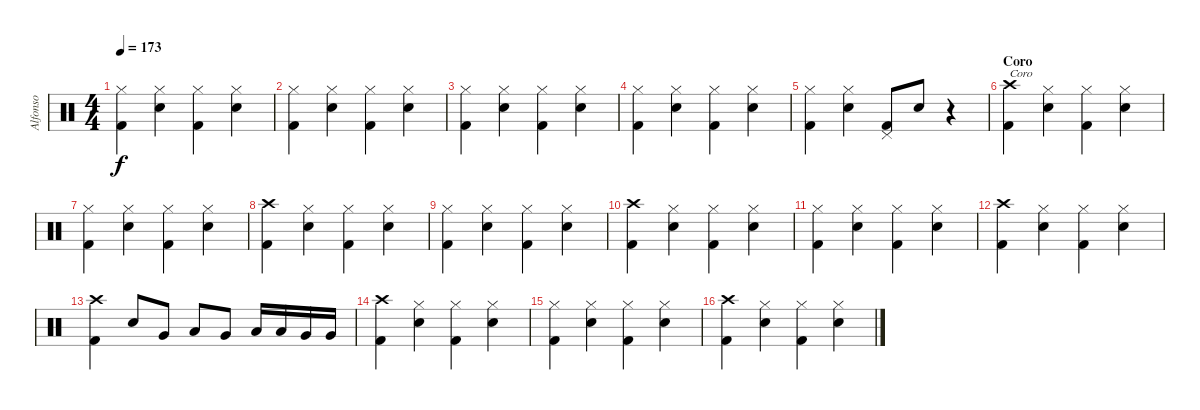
\track ("Alfonso" "Alfonso") {instrument percussion}
\staff {score}
\articulation defaults
\ts (4 4)
\tempo 173
\clef neutral
\ks c
("Kick (hit) 2" "Hi-Hat (closed)").4{dy f} ("Electric Snare (hit)" "Hi-Hat (closed)").4 ("Kick (hit) 2" "Hi-Hat (closed)").4 ("Electric Snare (hit)" "Hi-Hat (closed)").4 |
("Kick (hit) 2" "Hi-Hat (closed)").4 ("Electric Snare (hit)" "Hi-Hat (closed)").4 ("Kick (hit) 2" "Hi-Hat (closed)").4 ("Electric Snare (hit)" "Hi-Hat (closed)").4 |
("Kick (hit) 2" "Hi-Hat (closed)").4 ("Electric Snare (hit)" "Hi-Hat (closed)").4 ("Kick (hit) 2" "Hi-Hat (closed)").4 ("Electric Snare (hit)" "Hi-Hat (closed)").4 |
("Kick (hit) 2" "Hi-Hat (closed)").4 ("Electric Snare (hit)" "Hi-Hat (closed)").4 ("Kick (hit) 2" "Hi-Hat (closed)").4 ("Electric Snare (hit)" "Hi-Hat (closed)").4 |
("Kick (hit) 2" "Hi-Hat (closed)").4 ("Electric Snare (hit)" "Hi-Hat (closed)").4 ("Kick (hit) 2" "Pedal Hi-Hat (hit)").8 "Electric Snare (hit)".8 r.4 |
\section ("" "Coro")
("Kick (hit) 2" "Crash high (hit)").4{txt "Coro"} ("Electric Snare (hit)" "Hi-Hat (closed)").4 ("Kick (hit) 2" "Hi-Hat (closed)").4 ("Electric Snare (hit)" "Hi-Hat (closed)").4 |
("Kick (hit) 2" "Hi-Hat (closed)").4 ("Electric Snare (hit)" "Hi-Hat (closed)").4 ("Kick (hit) 2" "Hi-Hat (closed)").4 ("Electric Snare (hit)" "Hi-Hat (closed)").4 |
("Kick (hit) 2" "Crash high (hit)").4 ("Electric Snare (hit)" "Hi-Hat (closed)").4 ("Kick (hit) 2" "Hi-Hat (closed)").4 ("Electric Snare (hit)" "Hi-Hat (closed)").4 |
("Kick (hit) 2" "Hi-Hat (closed)").4 ("Electric Snare (hit)" "Hi-Hat (closed)").4 ("Kick (hit) 2" "Hi-Hat (closed)").4 ("Electric Snare (hit)" "Hi-Hat (closed)").4 |
("Kick (hit) 2" "Crash high (hit)").4 ("Electric Snare (hit)" "Hi-Hat (closed)").4 ("Kick (hit) 2" "Hi-Hat (closed)").4 ("Electric Snare (hit)" "Hi-Hat (closed)").4 |
("Kick (hit) 2" "Hi-Hat (closed)").4 ("Electric Snare (hit)" "Hi-Hat (closed)").4 ("Kick (hit) 2" "Hi-Hat (closed)").4 ("Electric Snare (hit)" "Hi-Hat (closed)").4 |
("Kick (hit) 2" "Crash high (hit)").4 ("Electric Snare (hit)" "Hi-Hat (closed)").4 ("Kick (hit) 2" "Hi-Hat (closed)").4 ("Electric Snare (hit)" "Hi-Hat (closed)").4 |
("Crash high (hit)" "Kick (hit) 2").4 "Electric Snare (hit)".8 "Very Low Tom (hit)".8 "Low Floor Tom (hit)".8 "Very Low Tom (hit)".8 "Low Tom (hit)".16 "Low Tom (hit)".16 "Very Low Tom (hit)".16 "Very Low Tom (hit)".16 |
("Kick (hit) 2" "Crash high (hit)").4 ("Electric Snare (hit)" "Hi-Hat (closed)").4 ("Kick (hit) 2" "Hi-Hat (closed)").4 ("Electric Snare (hit)" "Hi-Hat (closed)").4 |
("Kick (hit) 2" "Hi-Hat (closed)").4 ("Electric Snare (hit)" "Hi-Hat (closed)").4 ("Kick (hit) 2" "Hi-Hat (closed)").4 ("Electric Snare (hit)" "Hi-Hat (closed)").4 |
("Kick (hit) 2" "Crash high (hit)").4 ("Electric Snare (hit)" "Hi-Hat (closed)").4 ("Kick (hit) 2" "Hi-Hat (closed)").4 ("Electric Snare (hit)" "Hi-Hat (closed)").4
